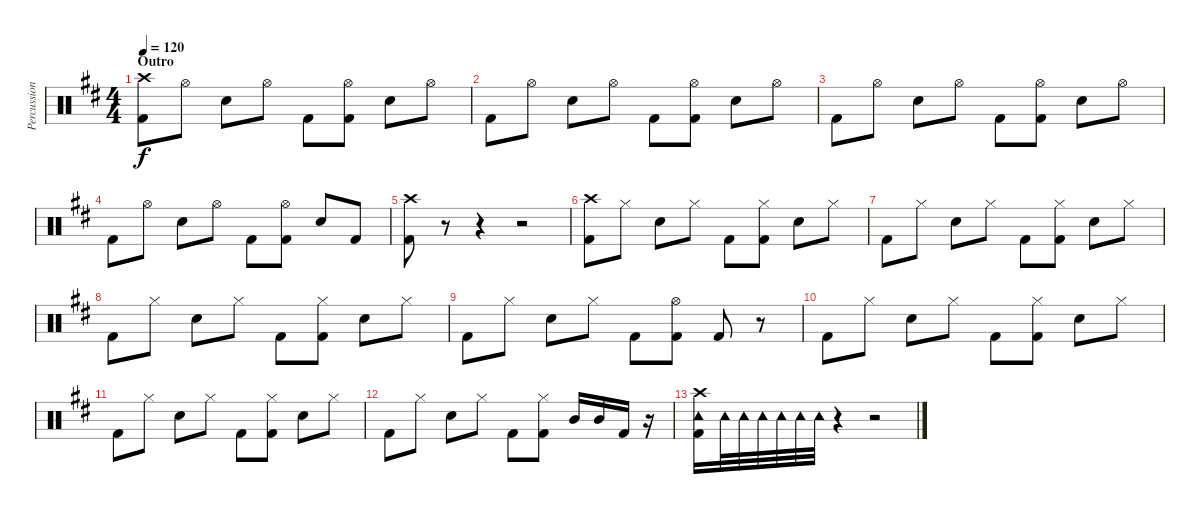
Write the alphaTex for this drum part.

\track ("Percussion" "Percussion") {instrument percussion}
\staff {score}
\articulation defaults
\ts (4 4)
\section ("" "Outro")
\tempo 120
\clef neutral
\ks d
("Crash high (hit)" "Kick (hit) 2").8{dy f} "Hi-Hat (open)".8 "Snare (hit) 2".8 "Hi-Hat (open)".8 "Kick (hit) 2".8 ("Hi-Hat (open)" "Kick (hit) 2").8 "Snare (hit) 2".8 "Hi-Hat (open)".8 |
"Kick (hit) 2".8 "Hi-Hat (open)".8 "Snare (hit) 2".8 "Hi-Hat (open)".8 "Kick (hit) 2".8 ("Hi-Hat (open)" "Kick (hit) 2").8 "Snare (hit) 2".8 "Hi-Hat (open)".8 |
"Kick (hit) 2".8 "Hi-Hat (open)".8 "Snare (hit) 2".8 "Hi-Hat (open)".8 "Kick (hit) 2".8 ("Hi-Hat (open)" "Kick (hit) 2").8 "Snare (hit) 2".8 "Hi-Hat (open)".8 |
"Kick (hit) 2".8 "Hi-Hat (open)".8 "Snare (hit) 2".8 "Hi-Hat (open)".8 "Kick (hit) 2".8 ("Hi-Hat (open)" "Kick (hit) 2").8 "Snare (hit) 2".8 "Kick (hit) 2".8 |
("Crash high (hit)" "Kick (hit) 2").8 r.8 r.4 r.2 |
("Crash high (hit)" "Kick (hit) 2").8 "Hi-Hat (closed)".8 "Snare (hit) 2".8 "Hi-Hat (closed)".8 "Kick (hit) 2".8 ("Hi-Hat (closed)" "Kick (hit) 2").8 "Snare (hit) 2".8 "Hi-Hat (closed)".8 |
"Kick (hit) 2".8 "Hi-Hat (closed)".8 "Snare (hit) 2".8 "Hi-Hat (closed)".8 "Kick (hit) 2".8 ("Hi-Hat (closed)" "Kick (hit) 2").8 "Snare (hit) 2".8 "Hi-Hat (closed)".8 |
"Kick (hit) 2".8 "Hi-Hat (closed)".8 "Snare (hit) 2".8 "Hi-Hat (closed)".8 "Kick (hit) 2".8 ("Hi-Hat (closed)" "Kick (hit) 2").8 "Snare (hit) 2".8 "Hi-Hat (closed)".8 |
"Kick (hit) 2".8 "Hi-Hat (closed)".8 "Snare (hit) 2".8 "Hi-Hat (closed)".8 "Kick (hit) 2".8 ("Hi-Hat (open)" "Kick (hit) 2").8 "Kick (hit) 2".8 r.8 |
"Kick (hit) 2".8 "Hi-Hat (closed)".8 "Snare (hit) 2".8 "Hi-Hat (closed)".8 "Kick (hit) 2".8 ("Hi-Hat (closed)" "Kick (hit) 2").8 "Snare (hit) 2".8 "Hi-Hat (closed)".8 |
"Kick (hit) 2".8 "Hi-Hat (closed)".8 "Snare (hit) 2".8 "Hi-Hat (closed)".8 "Kick (hit) 2".8 ("Hi-Hat (closed)" "Kick (hit) 2").8 "Snare (hit) 2".8 "Hi-Hat (closed)".8 |
"Kick (hit) 2".8 "Hi-Hat (closed)".8 "Snare (hit) 2".8 "Hi-Hat (closed)".8 "Kick (hit) 2".8 ("Hi-Hat (closed)" "Kick (hit) 2").8 "Mid Tom (hit)".16 "Mid Tom (hit)".16 "Kick (hit) 2".16 r.16 |
("Crash high (hit)" "Tambourine (hit)" "Kick (hit) 2").16 "Tambourine (hit)".32 "Tambourine (hit)".32 "Tambourine (hit)".32 "Tambourine (hit)".32 "Tambourine (hit)".32 "Tambourine (hit)".32 r.4 r.2
